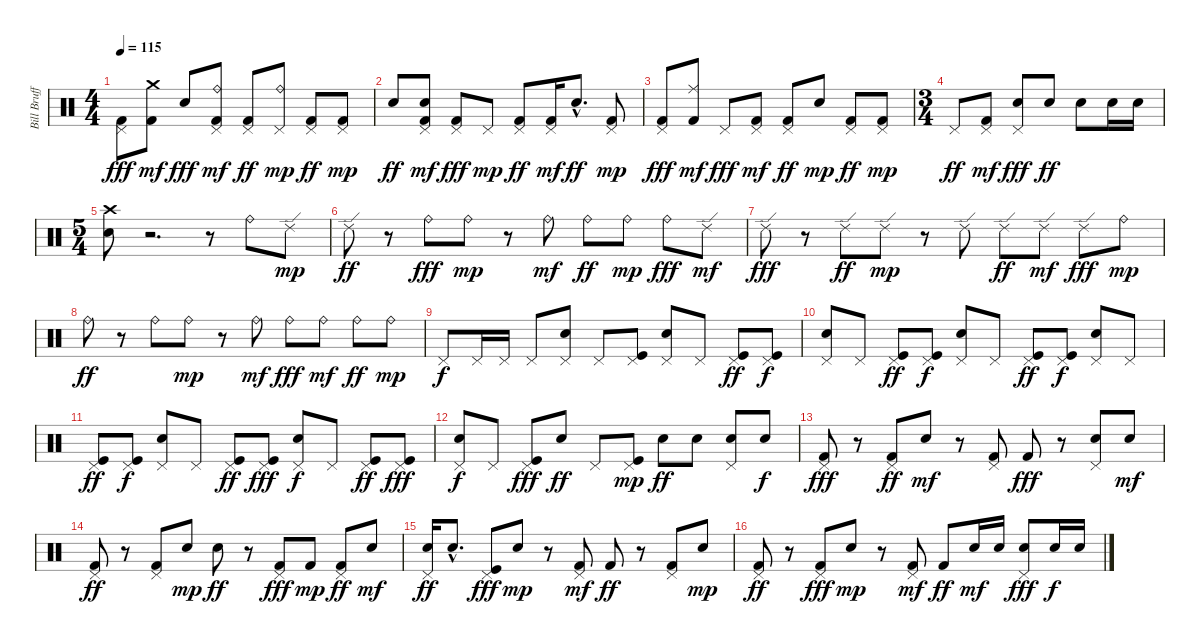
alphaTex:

\track ("Bill Brufford Drums" "Bill Bruff") {instrument percussion}
\staff {score}
\articulation defaults
\ts (4 4)
\tempo 115
\clef neutral
\ks c
("Pedal Hi-Hat (hit)" "Kick (hit) 2").8{dy fff} ("Crash medium (hit)" "Kick (hit) 2").8{dy mf} "Electric Snare (hit)".8{dy fff} ("Ride (bell)" "Pedal Hi-Hat (hit)" "Kick (hit) 2").8{dy mf} ("Pedal Hi-Hat (hit)" "Kick (hit) 2").8{dy ff} ("Pedal Hi-Hat (hit)" "Ride (bell)").8{dy mp} ("Pedal Hi-Hat (hit)" "Kick (hit) 2").8{dy ff} ("Pedal Hi-Hat (hit)" "Kick (hit) 2").8{dy mp} |
"Electric Snare (hit)".8{dy ff} ("Electric Snare (hit)" "Pedal Hi-Hat (hit)" "Kick (hit) 2").8{dy mf} ("Pedal Hi-Hat (hit)" "Kick (hit) 2").8{dy fff} "Pedal Hi-Hat (hit)".8{dy mp} ("Pedal Hi-Hat (hit)" "Kick (hit) 2").8{dy ff} ("Pedal Hi-Hat (hit)" "Kick (hit) 2").16{dy mf} "Electric Snare (hit)"{hac}.8{d dy ff} ("Pedal Hi-Hat (hit)" "Kick (hit) 2").8{dy mp} |
("Pedal Hi-Hat (hit)" "Kick (hit) 2").8{dy fff} ("Ride (middle)" "Kick (hit) 2").8{dy mf} "Pedal Hi-Hat (hit)".8{dy fff} ("Pedal Hi-Hat (hit)" "Kick (hit) 2").8{dy mf} ("Pedal Hi-Hat (hit)" "Kick (hit) 2").8{dy ff} "Electric Snare (hit)".8{dy mp} ("Pedal Hi-Hat (hit)" "Kick (hit) 2").8{dy ff} ("Pedal Hi-Hat (hit)" "Kick (hit) 2").8{dy mp} |
\ts (3 4)
"Pedal Hi-Hat (hit)".8{dy ff} ("Pedal Hi-Hat (hit)" "Kick (hit) 2").8{dy mf} ("Pedal Hi-Hat (hit)" "Electric Snare (hit)").8{dy fff} "Electric Snare (hit)".8{dy ff} "Electric Snare (hit)".8 "Electric Snare (hit)".16 "Electric Snare (hit)".16 |
\ts (5 4)
("Electric Snare (hit)" "Crash high (hit)").8 r.2{d} r.8 "Ride (bell)".8 "Ride (edge) 2".8{dy mp} |
"Ride (edge) 2".8{dy ff} r.8 "Ride (bell)".8{dy fff} "Ride (bell)".8{dy mp} r.8 "Ride (bell)".8{dy mf} "Ride (bell)".8{dy ff} "Ride (bell)".8{dy mp} "Ride (bell)".8{dy fff} "Ride (edge) 2".8{dy mf} |
"Ride (edge) 2".8{dy fff} r.8 "Ride (edge) 2".8{dy ff} "Ride (edge) 2".8{dy mp} r.8 "Ride (edge) 2".8 "Ride (edge) 2".8{dy ff} "Ride (edge) 2".8{dy mf} "Ride (edge) 2".8{dy fff} "Ride (bell)".8{dy mp} |
"Ride (bell)".8{dy ff} r.8 "Ride (bell)".8 "Ride (bell)".8{dy mp} r.8 "Ride (bell)".8{dy mf} "Ride (bell)".8{dy fff} "Ride (bell)".8{dy mf} "Ride (bell)".8{dy ff} "Ride (bell)".8{dy mp} |
"Pedal Hi-Hat (hit)".8{dy f} "Pedal Hi-Hat (hit)".16 "Pedal Hi-Hat (hit)".16 "Pedal Hi-Hat (hit)".8 ("Electric Snare (hit)" "Pedal Hi-Hat (hit)").8 "Pedal Hi-Hat (hit)".8 ("Kick (hit)" "Pedal Hi-Hat (hit)").8 ("Electric Snare (hit)" "Pedal Hi-Hat (hit)").8 "Pedal Hi-Hat (hit)".8 ("Kick (hit)" "Pedal Hi-Hat (hit)").8{dy ff} ("Kick (hit)" "Pedal Hi-Hat (hit)").8{dy f} |
("Electric Snare (hit)" "Pedal Hi-Hat (hit)").8 "Pedal Hi-Hat (hit)".8 ("Kick (hit)" "Pedal Hi-Hat (hit)").8{dy ff} ("Kick (hit)" "Pedal Hi-Hat (hit)").8{dy f} ("Electric Snare (hit)" "Pedal Hi-Hat (hit)").8 "Pedal Hi-Hat (hit)".8 ("Kick (hit)" "Pedal Hi-Hat (hit)").8{dy ff} ("Kick (hit)" "Pedal Hi-Hat (hit)").8{dy f} ("Electric Snare (hit)" "Pedal Hi-Hat (hit)").8 "Pedal Hi-Hat (hit)".8 |
("Kick (hit)" "Pedal Hi-Hat (hit)").8{dy ff} ("Kick (hit)" "Pedal Hi-Hat (hit)").8{dy f} ("Electric Snare (hit)" "Pedal Hi-Hat (hit)").8 "Pedal Hi-Hat (hit)".8 ("Kick (hit)" "Pedal Hi-Hat (hit)").8{dy ff} ("Kick (hit)" "Pedal Hi-Hat (hit)").8{dy fff} ("Electric Snare (hit)" "Pedal Hi-Hat (hit)").8{dy f} "Pedal Hi-Hat (hit)".8 ("Kick (hit)" "Pedal Hi-Hat (hit)").8{dy ff} ("Kick (hit)" "Pedal Hi-Hat (hit)").8{dy fff} |
("Electric Snare (hit)" "Pedal Hi-Hat (hit)").8{dy f} "Pedal Hi-Hat (hit)".8 ("Pedal Hi-Hat (hit)" "Kick (hit)").8{dy fff} "Electric Snare (hit)".8{dy ff} "Pedal Hi-Hat (hit)".8 ("Pedal Hi-Hat (hit)" "Kick (hit)").8{dy mp} "Electric Snare (hit)".8{dy ff} "Electric Snare (hit)".8 ("Pedal Hi-Hat (hit)" "Electric Snare (hit)").8 "Electric Snare (hit)".8{dy f} |
("Kick (hit) 2" "Pedal Hi-Hat (hit)").8{dy fff} r.8 ("Kick (hit) 2" "Pedal Hi-Hat (hit)").8{dy ff} "Electric Snare (hit)".8{dy mf} r.8 ("Kick (hit) 2" "Pedal Hi-Hat (hit)").8 "Kick (hit) 2".8{dy fff} r.8 ("Electric Snare (hit)" "Pedal Hi-Hat (hit)").8 "Electric Snare (hit)".8{dy mf} |
("Pedal Hi-Hat (hit)" "Kick (hit) 2").8{dy ff} r.8 ("Pedal Hi-Hat (hit)" "Kick (hit) 2").8 "Electric Snare (hit)".8{dy mp} "Electric Snare (hit)".8{dy ff} r.8 ("Pedal Hi-Hat (hit)" "Kick (hit) 2").8{dy fff} "Kick (hit) 2".8{dy mp} ("Pedal Hi-Hat (hit)" "Kick (hit) 2").8{dy ff} "Electric Snare (hit)".8{dy mf} |
("Electric Snare (hit)" "Pedal Hi-Hat (hit)").16{dy ff} "Electric Snare (hit)"{hac}.8{d} ("Pedal Hi-Hat (hit)" "Kick (hit)").8{dy fff} "Electric Snare (hit)".8{dy mp} r.8 ("Pedal Hi-Hat (hit)" "Kick (hit) 2").8{dy mf} "Kick (hit) 2".8{dy ff} r.8 ("Pedal Hi-Hat (hit)" "Kick (hit) 2").8 "Electric Snare (hit)".8{dy mp} |
("Pedal Hi-Hat (hit)" "Kick (hit) 2").8{dy ff} r.8 ("Pedal Hi-Hat (hit)" "Kick (hit) 2").8{dy fff} "Electric Snare (hit)".8{dy mp} r.8 ("Pedal Hi-Hat (hit)" "Kick (hit) 2").8{dy mf} "Kick (hit) 2".8{dy ff} "Electric Snare (hit)".16{dy mf} "Electric Snare (hit)".16 ("Pedal Hi-Hat (hit)" "Electric Snare (hit)").8{dy fff} "Electric Snare (hit)".16{dy f} "Electric Snare (hit)".16
